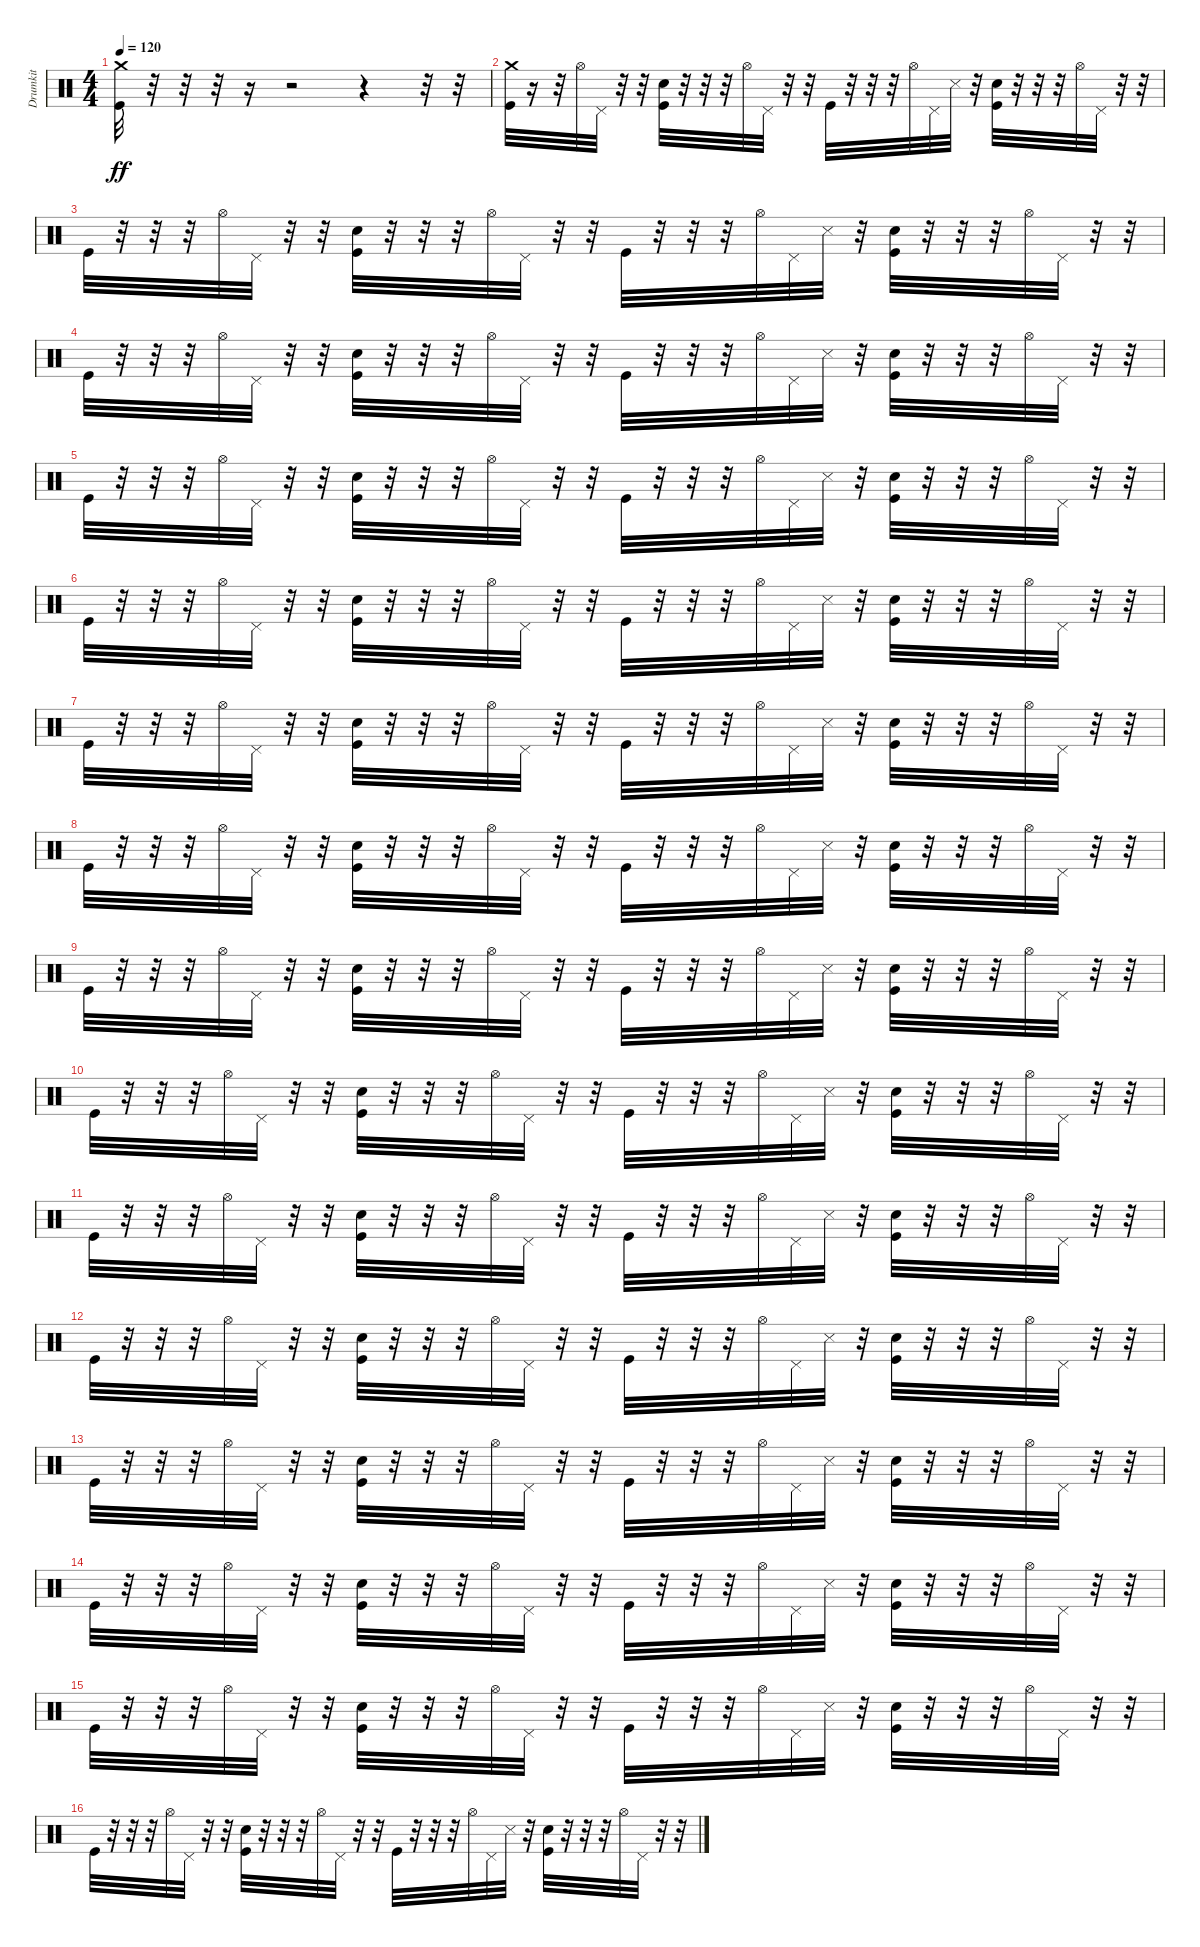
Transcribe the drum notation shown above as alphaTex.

\track ("Drumkit" "Drumkit") {instrument percussion}
\staff {score}
\articulation defaults
\ts (4 4)
\tempo 120
\clef neutral
\ks c
("Kick (hit)" "Crash medium (hit)").32{dy ff} r.32 r.32 r.32 r.16 r.2 r.4 r.32 r.32 |
("Crash medium (hit)" "Kick (hit)").32 r.16 r.32 "Hi-Hat (open)".32 "Pedal Hi-Hat (hit)".32 r.32 r.32 ("Snare (hit) 2" "Kick (hit)").32 r.32 r.32 r.32 "Hi-Hat (open)".32 "Pedal Hi-Hat (hit)".32 r.32 r.32 "Kick (hit)".32 r.32 r.32 r.32 "Hi-Hat (open)".32 "Pedal Hi-Hat (hit)".32 "Snare (side stick) 3".32 r.32 ("Snare (hit) 2" "Kick (hit)").32 r.32 r.32 r.32 "Hi-Hat (open)".32 "Pedal Hi-Hat (hit)".32 r.32 r.32 |
"Kick (hit)".32 r.32 r.32 r.32 "Hi-Hat (open)".32 "Pedal Hi-Hat (hit)".32 r.32 r.32 ("Snare (hit) 2" "Kick (hit)").32 r.32 r.32 r.32 "Hi-Hat (open)".32 "Pedal Hi-Hat (hit)".32 r.32 r.32 "Kick (hit)".32 r.32 r.32 r.32 "Hi-Hat (open)".32 "Pedal Hi-Hat (hit)".32 "Snare (side stick) 3".32 r.32 ("Snare (hit) 2" "Kick (hit)").32 r.32 r.32 r.32 "Hi-Hat (open)".32 "Pedal Hi-Hat (hit)".32 r.32 r.32 |
"Kick (hit)".32 r.32 r.32 r.32 "Hi-Hat (open)".32 "Pedal Hi-Hat (hit)".32 r.32 r.32 ("Snare (hit) 2" "Kick (hit)").32 r.32 r.32 r.32 "Hi-Hat (open)".32 "Pedal Hi-Hat (hit)".32 r.32 r.32 "Kick (hit)".32 r.32 r.32 r.32 "Hi-Hat (open)".32 "Pedal Hi-Hat (hit)".32 "Snare (side stick) 3".32 r.32 ("Snare (hit) 2" "Kick (hit)").32 r.32 r.32 r.32 "Hi-Hat (open)".32 "Pedal Hi-Hat (hit)".32 r.32 r.32 |
"Kick (hit)".32 r.32 r.32 r.32 "Hi-Hat (open)".32 "Pedal Hi-Hat (hit)".32 r.32 r.32 ("Snare (hit) 2" "Kick (hit)").32 r.32 r.32 r.32 "Hi-Hat (open)".32 "Pedal Hi-Hat (hit)".32 r.32 r.32 "Kick (hit)".32 r.32 r.32 r.32 "Hi-Hat (open)".32 "Pedal Hi-Hat (hit)".32 "Snare (side stick) 3".32 r.32 ("Kick (hit)" "Snare (hit) 2").32 r.32 r.32 r.32 "Hi-Hat (open)".32 "Pedal Hi-Hat (hit)".32 r.32 r.32 |
"Kick (hit)".32 r.32 r.32 r.32 "Hi-Hat (open)".32 "Pedal Hi-Hat (hit)".32 r.32 r.32 ("Kick (hit)" "Snare (hit) 2").32 r.32 r.32 r.32 "Hi-Hat (open)".32 "Pedal Hi-Hat (hit)".32 r.32 r.32 "Kick (hit)".32 r.32 r.32 r.32 "Hi-Hat (open)".32 "Pedal Hi-Hat (hit)".32 "Snare (side stick) 3".32 r.32 ("Snare (hit) 2" "Kick (hit)").32 r.32 r.32 r.32 "Hi-Hat (open)".32 "Pedal Hi-Hat (hit)".32 r.32 r.32 |
"Kick (hit)".32 r.32 r.32 r.32 "Hi-Hat (open)".32 "Pedal Hi-Hat (hit)".32 r.32 r.32 ("Snare (hit) 2" "Kick (hit)").32 r.32 r.32 r.32 "Hi-Hat (open)".32 "Pedal Hi-Hat (hit)".32 r.32 r.32 "Kick (hit)".32 r.32 r.32 r.32 "Hi-Hat (open)".32 "Pedal Hi-Hat (hit)".32 "Snare (side stick) 3".32 r.32 ("Kick (hit)" "Snare (hit) 2").32 r.32 r.32 r.32 "Hi-Hat (open)".32 "Pedal Hi-Hat (hit)".32 r.32 r.32 |
"Kick (hit)".32 r.32 r.32 r.32 "Hi-Hat (open)".32 "Pedal Hi-Hat (hit)".32 r.32 r.32 ("Kick (hit)" "Snare (hit) 2").32 r.32 r.32 r.32 "Hi-Hat (open)".32 "Pedal Hi-Hat (hit)".32 r.32 r.32 "Kick (hit)".32 r.32 r.32 r.32 "Hi-Hat (open)".32 "Pedal Hi-Hat (hit)".32 "Snare (side stick) 3".32 r.32 ("Snare (hit) 2" "Kick (hit)").32 r.32 r.32 r.32 "Hi-Hat (open)".32 "Pedal Hi-Hat (hit)".32 r.32 r.32 |
"Kick (hit)".32 r.32 r.32 r.32 "Hi-Hat (open)".32 "Pedal Hi-Hat (hit)".32 r.32 r.32 ("Kick (hit)" "Snare (hit) 2").32 r.32 r.32 r.32 "Hi-Hat (open)".32 "Pedal Hi-Hat (hit)".32 r.32 r.32 "Kick (hit)".32 r.32 r.32 r.32 "Hi-Hat (open)".32 "Pedal Hi-Hat (hit)".32 "Snare (side stick) 3".32 r.32 ("Kick (hit)" "Snare (hit) 2").32 r.32 r.32 r.32 "Hi-Hat (open)".32 "Pedal Hi-Hat (hit)".32 r.32 r.32 |
"Kick (hit)".32 r.32 r.32 r.32 "Hi-Hat (open)".32 "Pedal Hi-Hat (hit)".32 r.32 r.32 ("Snare (hit) 2" "Kick (hit)").32 r.32 r.32 r.32 "Hi-Hat (open)".32 "Pedal Hi-Hat (hit)".32 r.32 r.32 "Kick (hit)".32 r.32 r.32 r.32 "Hi-Hat (open)".32 "Pedal Hi-Hat (hit)".32 "Snare (side stick) 3".32 r.32 ("Kick (hit)" "Snare (hit) 2").32 r.32 r.32 r.32 "Hi-Hat (open)".32 "Pedal Hi-Hat (hit)".32 r.32 r.32 |
"Kick (hit)".32 r.32 r.32 r.32 "Hi-Hat (open)".32 "Pedal Hi-Hat (hit)".32 r.32 r.32 ("Snare (hit) 2" "Kick (hit)").32 r.32 r.32 r.32 "Hi-Hat (open)".32 "Pedal Hi-Hat (hit)".32 r.32 r.32 "Kick (hit)".32 r.32 r.32 r.32 "Hi-Hat (open)".32 "Pedal Hi-Hat (hit)".32 "Snare (side stick) 3".32 r.32 ("Snare (hit) 2" "Kick (hit)").32 r.32 r.32 r.32 "Hi-Hat (open)".32 "Pedal Hi-Hat (hit)".32 r.32 r.32 |
"Kick (hit)".32 r.32 r.32 r.32 "Hi-Hat (open)".32 "Pedal Hi-Hat (hit)".32 r.32 r.32 ("Snare (hit) 2" "Kick (hit)").32 r.32 r.32 r.32 "Hi-Hat (open)".32 "Pedal Hi-Hat (hit)".32 r.32 r.32 "Kick (hit)".32 r.32 r.32 r.32 "Hi-Hat (open)".32 "Pedal Hi-Hat (hit)".32 "Snare (side stick) 3".32 r.32 ("Kick (hit)" "Snare (hit) 2").32 r.32 r.32 r.32 "Hi-Hat (open)".32 "Pedal Hi-Hat (hit)".32 r.32 r.32 |
"Kick (hit)".32 r.32 r.32 r.32 "Hi-Hat (open)".32 "Pedal Hi-Hat (hit)".32 r.32 r.32 ("Kick (hit)" "Snare (hit) 2").32 r.32 r.32 r.32 "Hi-Hat (open)".32 "Pedal Hi-Hat (hit)".32 r.32 r.32 "Kick (hit)".32 r.32 r.32 r.32 "Hi-Hat (open)".32 "Pedal Hi-Hat (hit)".32 "Snare (side stick) 3".32 r.32 ("Kick (hit)" "Snare (hit) 2").32 r.32 r.32 r.32 "Hi-Hat (open)".32 "Pedal Hi-Hat (hit)".32 r.32 r.32 |
"Kick (hit)".32 r.32 r.32 r.32 "Hi-Hat (open)".32 "Pedal Hi-Hat (hit)".32 r.32 r.32 ("Snare (hit) 2" "Kick (hit)").32 r.32 r.32 r.32 "Hi-Hat (open)".32 "Pedal Hi-Hat (hit)".32 r.32 r.32 "Kick (hit)".32 r.32 r.32 r.32 "Hi-Hat (open)".32 "Pedal Hi-Hat (hit)".32 "Snare (side stick) 3".32 r.32 ("Kick (hit)" "Snare (hit) 2").32 r.32 r.32 r.32 "Hi-Hat (open)".32 "Pedal Hi-Hat (hit)".32 r.32 r.32 |
"Kick (hit)".32 r.32 r.32 r.32 "Hi-Hat (open)".32 "Pedal Hi-Hat (hit)".32 r.32 r.32 ("Snare (hit) 2" "Kick (hit)").32 r.32 r.32 r.32 "Hi-Hat (open)".32 "Pedal Hi-Hat (hit)".32 r.32 r.32 "Kick (hit)".32 r.32 r.32 r.32 "Hi-Hat (open)".32 "Pedal Hi-Hat (hit)".32 "Snare (side stick) 3".32 r.32 ("Snare (hit) 2" "Kick (hit)").32 r.32 r.32 r.32 "Hi-Hat (open)".32 "Pedal Hi-Hat (hit)".32 r.32 r.32 |
"Kick (hit)".32 r.32 r.32 r.32 "Hi-Hat (open)".32 "Pedal Hi-Hat (hit)".32 r.32 r.32 ("Snare (hit) 2" "Kick (hit)").32 r.32 r.32 r.32 "Hi-Hat (open)".32 "Pedal Hi-Hat (hit)".32 r.32 r.32 "Kick (hit)".32 r.32 r.32 r.32 "Hi-Hat (open)".32 "Pedal Hi-Hat (hit)".32 "Snare (side stick) 3".32 r.32 ("Kick (hit)" "Snare (hit) 2").32 r.32 r.32 r.32 "Hi-Hat (open)".32 "Pedal Hi-Hat (hit)".32 r.32 r.32
